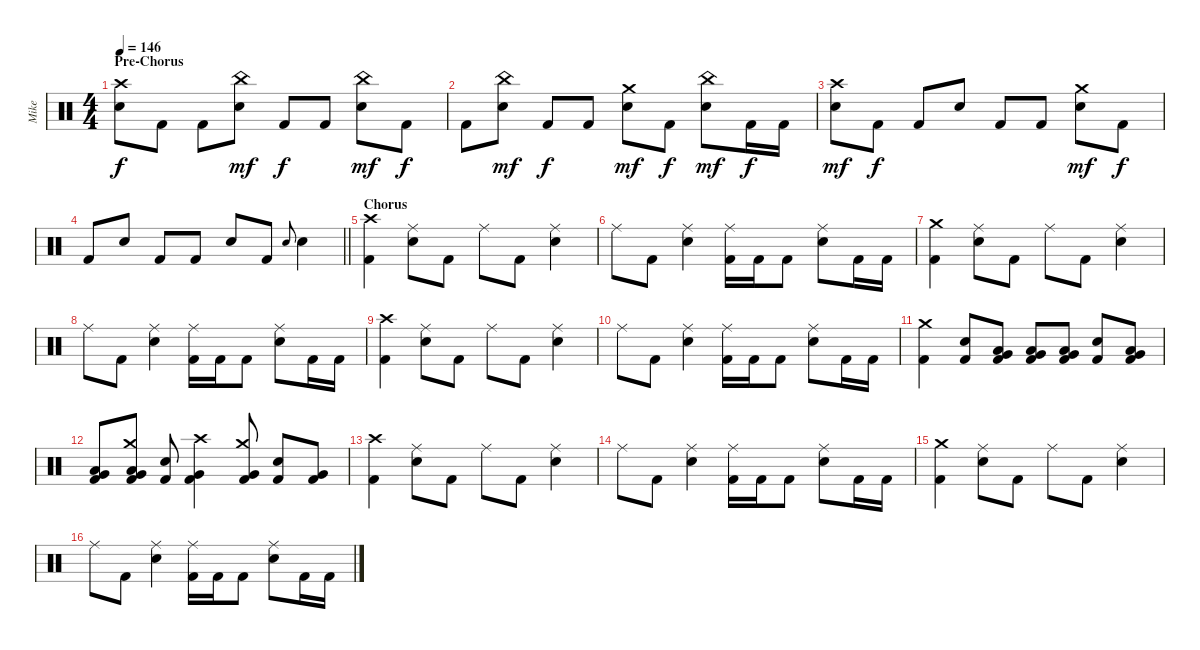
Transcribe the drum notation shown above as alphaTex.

\track ("Mike" "Mike") {instrument percussion}
\staff {score}
\articulation defaults
\ts (4 4)
\section ("" "Pre-Chorus")
\tempo 146
\clef neutral
\ks c
("Crash high (hit)" "Snare (hit) 2").8{dy f} "Kick (hit) 2".8 "Kick (hit) 2".8 ("China (hit)" "Snare (hit) 2").8{dy mf} "Kick (hit) 2".8{dy f} "Kick (hit) 2".8 ("China (hit)" "Snare (hit) 2").8{dy mf} "Kick (hit) 2".8{dy f} |
"Kick (hit) 2".8 ("China (hit)" "Snare (hit) 2").8{dy mf} "Kick (hit) 2".8{dy f} "Kick (hit) 2".8 ("Crash medium (hit)" "Snare (hit) 2").8{dy mf} "Kick (hit) 2".8{dy f} ("China (hit)" "Snare (hit) 2").8{dy mf} "Kick (hit) 2".16{dy f} "Kick (hit) 2".16 |
("Crash high (hit)" "Snare (hit) 2").8{dy mf} "Kick (hit) 2".8{dy f} "Kick (hit) 2".8 "Snare (hit) 2".8 "Kick (hit) 2".8 "Kick (hit) 2".8 ("Crash medium (hit)" "Snare (hit) 2").8{dy mf} "Kick (hit) 2".8{dy f} |
\barLineRight lightlight "Kick (hit) 2".8 "Snare (hit) 2".8 "Kick (hit) 2".8 "Kick (hit) 2".8 "Snare (hit) 2".8 "Kick (hit) 2".8 "Snare (hit) 2".8{gr onbeat} "Snare (hit) 2".4
|
\section ("" "Chorus")
("Crash high (hit)" "Kick (hit) 2").4 ("Snare (hit) 2" "Ride (middle)").8 "Kick (hit) 2".8 "Ride (middle)".8 "Kick (hit) 2".8 ("Snare (hit) 2" "Ride (middle)").4 |
"Ride (middle)".8 "Kick (hit) 2".8 ("Snare (hit) 2" "Ride (middle)").4 ("Ride (middle)" "Kick (hit) 2").16 "Kick (hit) 2".16 "Kick (hit) 2".8 ("Snare (hit) 2" "Ride (middle)").8 "Kick (hit) 2".16 "Kick (hit) 2".16 |
("Crash medium (hit)" "Kick (hit) 2").4 ("Snare (hit) 2" "Ride (middle)").8 "Kick (hit) 2".8 "Ride (middle)".8 "Kick (hit) 2".8 ("Snare (hit) 2" "Ride (middle)").4 |
"Ride (middle)".8 "Kick (hit) 2".8 ("Snare (hit) 2" "Ride (middle)").4 ("Ride (middle)" "Kick (hit) 2").16 "Kick (hit) 2".16 "Kick (hit) 2".8 ("Snare (hit) 2" "Ride (middle)").8 "Kick (hit) 2".16 "Kick (hit) 2".16 |
("Crash high (hit)" "Kick (hit) 2").4 ("Snare (hit) 2" "Ride (middle)").8 "Kick (hit) 2".8 "Ride (middle)".8 "Kick (hit) 2".8 ("Snare (hit) 2" "Ride (middle)").4 |
"Ride (middle)".8 "Kick (hit) 2".8 ("Snare (hit) 2" "Ride (middle)").4 ("Ride (middle)" "Kick (hit) 2").16 "Kick (hit) 2".16 "Kick (hit) 2".8 ("Snare (hit) 2" "Ride (middle)").8 "Kick (hit) 2".16 "Kick (hit) 2".16 |
("Crash medium (hit)" "Kick (hit) 2").4 ("Snare (hit) 2" "Kick (hit) 2").8 ("Very Low Tom (hit)" "Low Floor Tom (hit)" "Kick (hit) 2").8 ("Low Tom (hit)" "Very Low Tom (hit)" "Kick (hit) 2").8 ("Very Low Tom (hit)" "Low Floor Tom (hit)" "Kick (hit) 2").8 ("Snare (hit) 2" "Kick (hit) 2").8 ("Very Low Tom (hit)" "Low Floor Tom (hit)" "Kick (hit) 2").8 |
("Low Tom (hit)" "Very Low Tom (hit)" "Kick (hit) 2").8 ("Crash medium (hit)" "Very Low Tom (hit)" "Low Floor Tom (hit)" "Kick (hit) 2").8 ("Snare (hit) 2" "Kick (hit) 2").8 ("Crash high (hit)" "Very Low Tom (hit)" "Kick (hit) 2").4 ("Crash medium (hit)" "Very Low Tom (hit)" "Kick (hit) 2").8 ("Snare (hit) 2" "Kick (hit) 2").8 ("Very Low Tom (hit)" "Kick (hit) 2").8 |
("Crash high (hit)" "Kick (hit) 2").4 ("Snare (hit) 2" "Ride (middle)").8 "Kick (hit) 2".8 "Ride (middle)".8 "Kick (hit) 2".8 ("Snare (hit) 2" "Ride (middle)").4 |
"Ride (middle)".8 "Kick (hit) 2".8 ("Snare (hit) 2" "Ride (middle)").4 ("Ride (middle)" "Kick (hit) 2").16 "Kick (hit) 2".16 "Kick (hit) 2".8 ("Snare (hit) 2" "Ride (middle)").8 "Kick (hit) 2".16 "Kick (hit) 2".16 |
("Crash medium (hit)" "Kick (hit) 2").4 ("Snare (hit) 2" "Ride (middle)").8 "Kick (hit) 2".8 "Ride (middle)".8 "Kick (hit) 2".8 ("Snare (hit) 2" "Ride (middle)").4 |
"Ride (middle)".8 "Kick (hit) 2".8 ("Snare (hit) 2" "Ride (middle)").4 ("Ride (middle)" "Kick (hit) 2").16 "Kick (hit) 2".16 "Kick (hit) 2".8 ("Snare (hit) 2" "Ride (middle)").8 "Kick (hit) 2".16 "Kick (hit) 2".16
